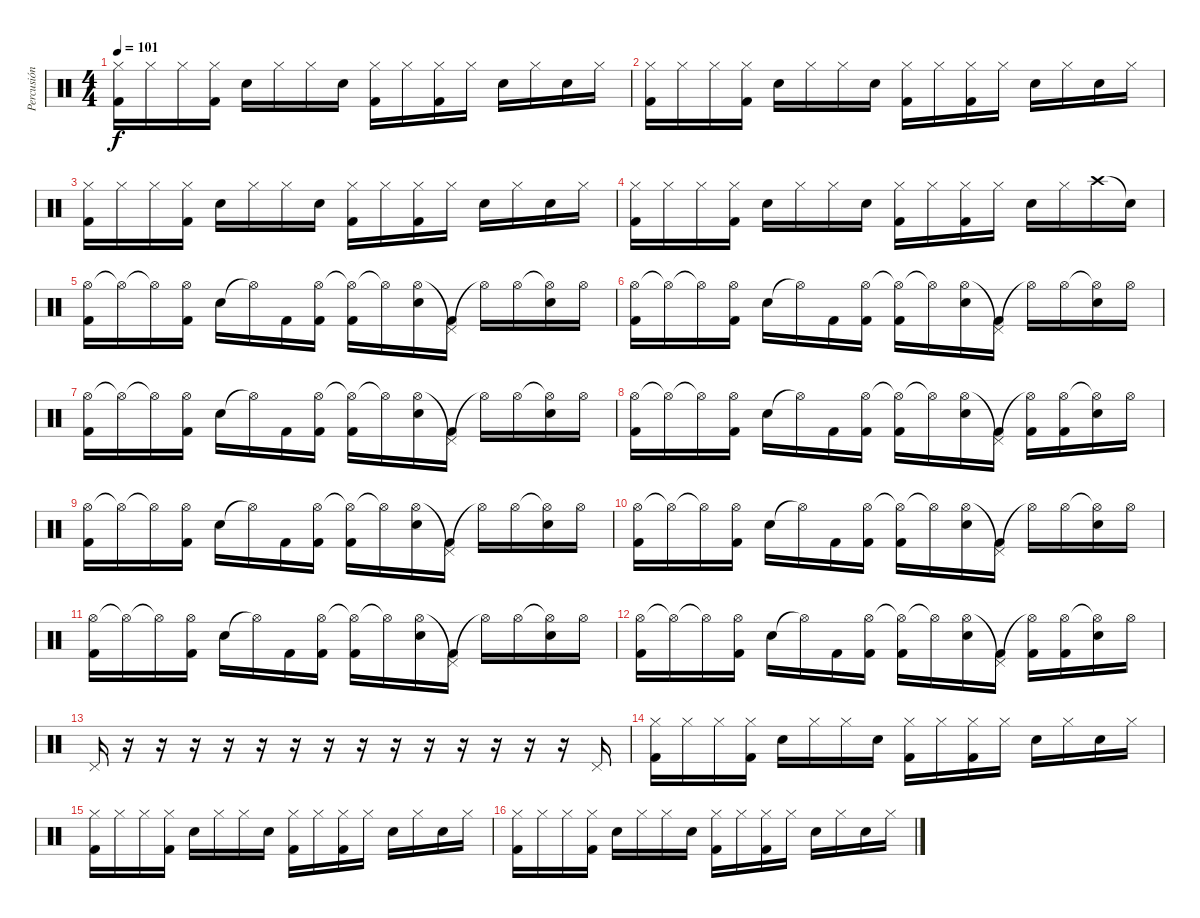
\track ("Percusión" "Percusión") {instrument percussion}
\staff {score}
\articulation defaults
\ts (4 4)
\tempo 101
\clef neutral
\ks c
("Hi-Hat (closed)" "Kick (hit) 2").16{dy f} "Hi-Hat (closed)".16 "Hi-Hat (closed)".16 ("Hi-Hat (closed)" "Kick (hit) 2").16 "Snare (hit) 2".16 "Hi-Hat (closed)".16 "Hi-Hat (closed)".16 "Snare (hit) 2".16 ("Hi-Hat (closed)" "Kick (hit) 2").16 "Hi-Hat (closed)".16 ("Hi-Hat (closed)" "Kick (hit) 2").16 "Hi-Hat (closed)".16 "Snare (hit) 2".16 "Hi-Hat (closed)".16 "Snare (hit) 2".16 "Hi-Hat (closed)".16 |
("Hi-Hat (closed)" "Kick (hit) 2").16 "Hi-Hat (closed)".16 "Hi-Hat (closed)".16 ("Hi-Hat (closed)" "Kick (hit) 2").16 "Snare (hit) 2".16 "Hi-Hat (closed)".16 "Hi-Hat (closed)".16 "Snare (hit) 2".16 ("Hi-Hat (closed)" "Kick (hit) 2").16 "Hi-Hat (closed)".16 ("Hi-Hat (closed)" "Kick (hit) 2").16 "Hi-Hat (closed)".16 "Snare (hit) 2".16 "Hi-Hat (closed)".16 "Snare (hit) 2".16 "Hi-Hat (closed)".16 |
("Hi-Hat (closed)" "Kick (hit) 2").16 "Hi-Hat (closed)".16 "Hi-Hat (closed)".16 ("Hi-Hat (closed)" "Kick (hit) 2").16 "Snare (hit) 2".16 "Hi-Hat (closed)".16 "Hi-Hat (closed)".16 "Snare (hit) 2".16 ("Hi-Hat (closed)" "Kick (hit) 2").16 "Hi-Hat (closed)".16 ("Hi-Hat (closed)" "Kick (hit) 2").16 "Hi-Hat (closed)".16 "Snare (hit) 2".16 "Hi-Hat (closed)".16 "Snare (hit) 2".16 "Hi-Hat (closed)".16 |
("Hi-Hat (closed)" "Kick (hit) 2").16 "Hi-Hat (closed)".16 "Hi-Hat (closed)".16 ("Hi-Hat (closed)" "Kick (hit) 2").16 "Snare (hit) 2".16 "Hi-Hat (closed)".16 "Hi-Hat (closed)".16 "Snare (hit) 2".16 ("Hi-Hat (closed)" "Kick (hit) 2").16 "Hi-Hat (closed)".16 ("Hi-Hat (closed)" "Kick (hit) 2").16 "Hi-Hat (closed)".16 "Snare (hit) 2".16 "Hi-Hat (closed)".16 "Crash high (hit)".16 "Snare (hit)"{t}.16 |
("Hi-Hat (open)" "Kick (hit) 2").16 "Hi-Hat (open)"{t}.16 "Hi-Hat (open)"{t}.16 ("Hi-Hat (open)" "Kick (hit) 2").16 "Snare (hit) 2".16 "Hi-Hat (open)"{t}.16 "Kick (hit) 2".16 ("Hi-Hat (open)" "Kick (hit) 2").16 ("Hi-Hat (open)"{t} "Kick (hit) 2").16 "Hi-Hat (open)"{t}.16 ("Hi-Hat (open)" "Snare (hit) 2").16 ("Pedal Hi-Hat (hit)"{t} "Kick (hit) 2").16 "Hi-Hat (open)"{t}.16 "Hi-Hat (open)".16 ("Hi-Hat (open)"{t} "Snare (hit) 2").16 "Hi-Hat (open)".16 |
("Hi-Hat (open)" "Kick (hit) 2").16 "Hi-Hat (open)"{t}.16 "Hi-Hat (open)"{t}.16 ("Hi-Hat (open)" "Kick (hit) 2").16 "Snare (hit) 2".16 "Hi-Hat (open)"{t}.16 "Kick (hit) 2".16 ("Hi-Hat (open)" "Kick (hit) 2").16 ("Hi-Hat (open)"{t} "Kick (hit) 2").16 "Hi-Hat (open)"{t}.16 ("Hi-Hat (open)" "Snare (hit) 2").16 ("Pedal Hi-Hat (hit)"{t} "Kick (hit) 2").16 "Hi-Hat (open)"{t}.16 "Hi-Hat (open)".16 ("Hi-Hat (open)"{t} "Snare (hit) 2").16 "Hi-Hat (open)".16 |
("Hi-Hat (open)" "Kick (hit) 2").16 "Hi-Hat (open)"{t}.16 "Hi-Hat (open)"{t}.16 ("Hi-Hat (open)" "Kick (hit) 2").16 "Snare (hit) 2".16 "Hi-Hat (open)"{t}.16 "Kick (hit) 2".16 ("Hi-Hat (open)" "Kick (hit) 2").16 ("Hi-Hat (open)"{t} "Kick (hit) 2").16 "Hi-Hat (open)"{t}.16 ("Hi-Hat (open)" "Snare (hit) 2").16 ("Pedal Hi-Hat (hit)"{t} "Kick (hit) 2").16 "Hi-Hat (open)"{t}.16 "Hi-Hat (open)".16 ("Hi-Hat (open)"{t} "Snare (hit) 2").16 "Hi-Hat (open)".16 |
("Hi-Hat (open)" "Kick (hit) 2").16 "Hi-Hat (open)"{t}.16 "Hi-Hat (open)"{t}.16 ("Hi-Hat (open)" "Kick (hit) 2").16 "Snare (hit) 2".16 "Hi-Hat (open)"{t}.16 "Kick (hit) 2".16 ("Hi-Hat (open)" "Kick (hit) 2").16 ("Hi-Hat (open)"{t} "Kick (hit) 2").16 "Hi-Hat (open)"{t}.16 ("Hi-Hat (open)" "Snare (hit) 2").16 ("Pedal Hi-Hat (hit)"{t} "Kick (hit) 2").16 ("Hi-Hat (open)"{t} "Kick (hit) 2").16 ("Hi-Hat (open)" "Kick (hit) 2").16 ("Hi-Hat (open)"{t} "Snare (hit) 2").16 "Hi-Hat (open)".16 |
("Hi-Hat (open)" "Kick (hit) 2").16 "Hi-Hat (open)"{t}.16 "Hi-Hat (open)"{t}.16 ("Hi-Hat (open)" "Kick (hit) 2").16 "Snare (hit) 2".16 "Hi-Hat (open)"{t}.16 "Kick (hit) 2".16 ("Hi-Hat (open)" "Kick (hit) 2").16 ("Hi-Hat (open)"{t} "Kick (hit) 2").16 "Hi-Hat (open)"{t}.16 ("Hi-Hat (open)" "Snare (hit) 2").16 ("Pedal Hi-Hat (hit)"{t} "Kick (hit) 2").16 "Hi-Hat (open)"{t}.16 "Hi-Hat (open)".16 ("Hi-Hat (open)"{t} "Snare (hit) 2").16 "Hi-Hat (open)".16 |
("Hi-Hat (open)" "Kick (hit) 2").16 "Hi-Hat (open)"{t}.16 "Hi-Hat (open)"{t}.16 ("Hi-Hat (open)" "Kick (hit) 2").16 "Snare (hit) 2".16 "Hi-Hat (open)"{t}.16 "Kick (hit) 2".16 ("Hi-Hat (open)" "Kick (hit) 2").16 ("Hi-Hat (open)"{t} "Kick (hit) 2").16 "Hi-Hat (open)"{t}.16 ("Hi-Hat (open)" "Snare (hit) 2").16 ("Pedal Hi-Hat (hit)"{t} "Kick (hit) 2").16 "Hi-Hat (open)"{t}.16 "Hi-Hat (open)".16 ("Hi-Hat (open)"{t} "Snare (hit) 2").16 "Hi-Hat (open)".16 |
("Hi-Hat (open)" "Kick (hit) 2").16 "Hi-Hat (open)"{t}.16 "Hi-Hat (open)"{t}.16 ("Hi-Hat (open)" "Kick (hit) 2").16 "Snare (hit) 2".16 "Hi-Hat (open)"{t}.16 "Kick (hit) 2".16 ("Hi-Hat (open)" "Kick (hit) 2").16 ("Hi-Hat (open)"{t} "Kick (hit) 2").16 "Hi-Hat (open)"{t}.16 ("Hi-Hat (open)" "Snare (hit) 2").16 ("Pedal Hi-Hat (hit)"{t} "Kick (hit) 2").16 "Hi-Hat (open)"{t}.16 "Hi-Hat (open)".16 ("Hi-Hat (open)"{t} "Snare (hit) 2").16 "Hi-Hat (open)".16 |
("Hi-Hat (open)" "Kick (hit) 2").16 "Hi-Hat (open)"{t}.16 "Hi-Hat (open)"{t}.16 ("Hi-Hat (open)" "Kick (hit) 2").16 "Snare (hit) 2".16 "Hi-Hat (open)"{t}.16 "Kick (hit) 2".16 ("Hi-Hat (open)" "Kick (hit) 2").16 ("Hi-Hat (open)"{t} "Kick (hit) 2").16 "Hi-Hat (open)"{t}.16 ("Hi-Hat (open)" "Snare (hit) 2").16 ("Pedal Hi-Hat (hit)"{t} "Kick (hit) 2").16 ("Hi-Hat (open)"{t} "Kick (hit) 2").16 ("Hi-Hat (open)" "Kick (hit) 2").16 ("Hi-Hat (open)"{t} "Snare (hit) 2").16 "Hi-Hat (open)".16 |
"Pedal Hi-Hat (hit)".16 r.16 r.16 r.16 r.16 r.16 r.16 r.16 r.16 r.16 r.16 r.16 r.16 r.16 r.16 "Pedal Hi-Hat (hit)".16 |
("Hi-Hat (closed)" "Kick (hit) 2").16 "Hi-Hat (closed)".16 "Hi-Hat (closed)".16 ("Hi-Hat (closed)" "Kick (hit) 2").16 "Snare (hit) 2".16 "Hi-Hat (closed)".16 "Hi-Hat (closed)".16 "Snare (hit) 2".16 ("Hi-Hat (closed)" "Kick (hit) 2").16 "Hi-Hat (closed)".16 ("Hi-Hat (closed)" "Kick (hit) 2").16 "Hi-Hat (closed)".16 "Snare (hit) 2".16 "Hi-Hat (closed)".16 "Snare (hit) 2".16 "Hi-Hat (closed)".16 |
("Hi-Hat (closed)" "Kick (hit) 2").16 "Hi-Hat (closed)".16 "Hi-Hat (closed)".16 ("Hi-Hat (closed)" "Kick (hit) 2").16 "Snare (hit) 2".16 "Hi-Hat (closed)".16 "Hi-Hat (closed)".16 "Snare (hit) 2".16 ("Hi-Hat (closed)" "Kick (hit) 2").16 "Hi-Hat (closed)".16 ("Hi-Hat (closed)" "Kick (hit) 2").16 "Hi-Hat (closed)".16 "Snare (hit) 2".16 "Hi-Hat (closed)".16 "Snare (hit) 2".16 "Hi-Hat (closed)".16 |
("Hi-Hat (closed)" "Kick (hit) 2").16 "Hi-Hat (closed)".16 "Hi-Hat (closed)".16 ("Hi-Hat (closed)" "Kick (hit) 2").16 "Snare (hit) 2".16 "Hi-Hat (closed)".16 "Hi-Hat (closed)".16 "Snare (hit) 2".16 ("Hi-Hat (closed)" "Kick (hit) 2").16 "Hi-Hat (closed)".16 ("Hi-Hat (closed)" "Kick (hit) 2").16 "Hi-Hat (closed)".16 "Snare (hit) 2".16 "Hi-Hat (closed)".16 "Snare (hit) 2".16 "Hi-Hat (closed)".16
